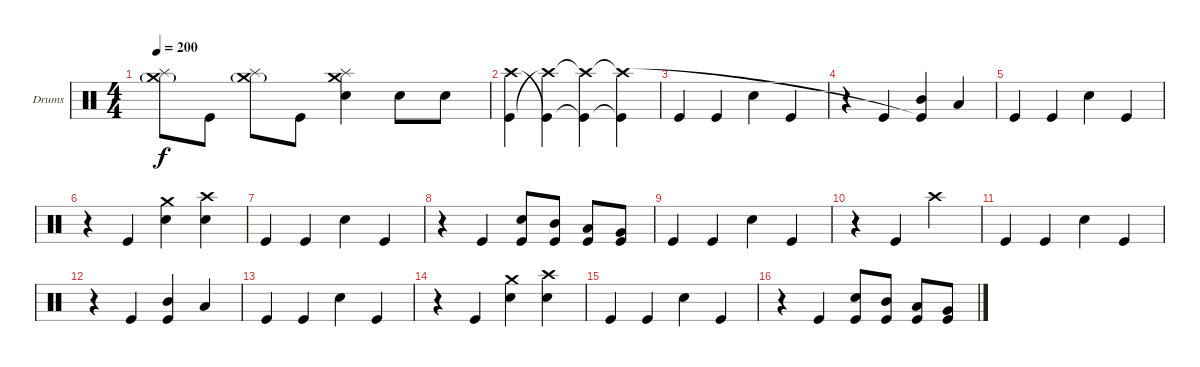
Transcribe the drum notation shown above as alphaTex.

\bracketExtendMode groupsimilarinstruments
\firstSystemTrackNameOrientation horizontal
\otherSystemsTrackNameOrientation horizontal
\track ("Canadien" "Drums") {instrument percussion}
\staff {score}
\articulation defaults
\ts (4 4)
\tempo 200
\clef neutral
\ks c
("Crash medium (hit)"{g} "Splash (hit)").8{dy f} "Kick (hit)".8 ("Crash medium (hit)"{g} "Splash (hit)").8 "Kick (hit)".8 ("Crash medium (hit)" "Splash (hit)" "Snare (hit) 2").4 "Snare (hit) 2".8 "Snare (hit) 2".8 |
("Crash high (hit)" "Kick (hit)").4 ("Kick (hit)"{t} "Crash high (hit)"{t}).4 ("Kick (hit)"{t} "Crash high (hit)"{t}).4 ("Kick (hit)"{t} "Crash high (hit)"{t}).4 |
"Kick (hit)".4 "Kick (hit)".4 "Snare (hit) 2".4 "Kick (hit)".4 |
r.4 "Kick (hit)".4 ("Mid Tom (hit)" "Kick (hit)"{t}).4 "Low Tom (hit)".4 |
"Kick (hit)".4 "Kick (hit)".4 "Snare (hit) 2".4 "Kick (hit)".4 |
r.4 "Kick (hit)".4 ("Crash medium (hit)" "Snare (hit) 2").4 ("Crash high (hit)" "Snare (hit) 2").4 |
"Kick (hit)".4 "Kick (hit)".4 "Snare (hit) 2".4 "Kick (hit)".4 |
r.4 "Kick (hit)".4 ("Snare (hit) 2" "Kick (hit)").8 ("Mid Tom (hit)" "Kick (hit)").8 ("Low Tom (hit)" "Kick (hit)").8 ("Very Low Tom (hit)" "Kick (hit)").8 |
"Kick (hit)".4 "Kick (hit)".4 "Snare (hit) 2".4 "Kick (hit)".4 |
r.4 "Kick (hit)".4 "Crash high (hit)".2 |
"Kick (hit)".4 "Kick (hit)".4 "Snare (hit) 2".4 "Kick (hit)".4 |
r.4 "Kick (hit)".4 ("Mid Tom (hit)" "Kick (hit)").4 "Low Tom (hit)".4 |
"Kick (hit)".4 "Kick (hit)".4 "Snare (hit) 2".4 "Kick (hit)".4 |
r.4 "Kick (hit)".4 ("Crash medium (hit)" "Snare (hit) 2").4 ("Crash high (hit)" "Snare (hit) 2").4 |
"Kick (hit)".4 "Kick (hit)".4 "Snare (hit) 2".4 "Kick (hit)".4 |
r.4 "Kick (hit)".4 ("Snare (hit) 2" "Kick (hit)").8 ("Mid Tom (hit)" "Kick (hit)").8 ("Low Tom (hit)" "Kick (hit)").8 ("Very Low Tom (hit)" "Kick (hit)").8
